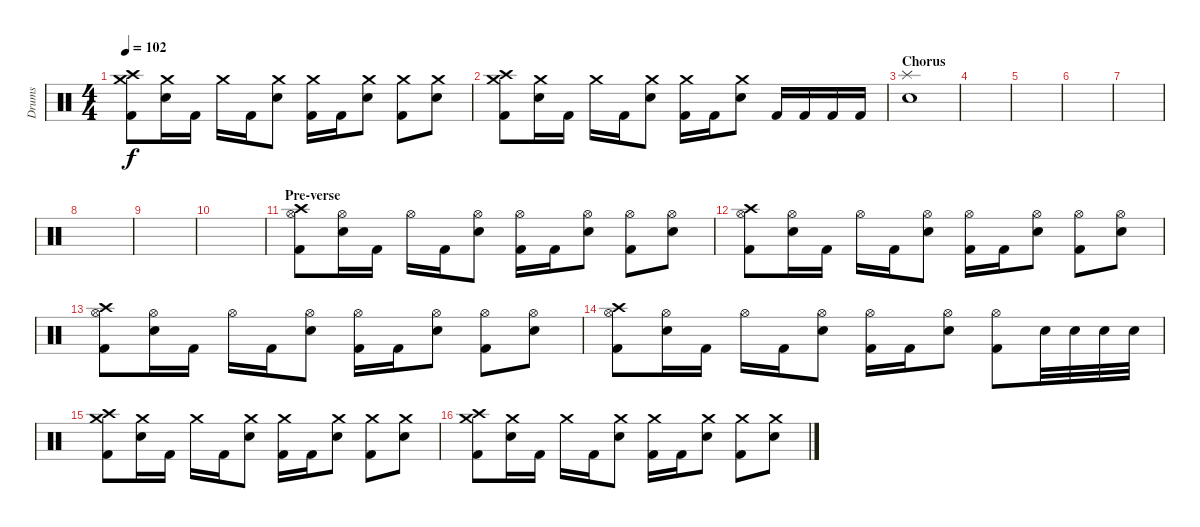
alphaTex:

\track ("Drums" "Drums") {instrument percussion}
\staff {score}
\articulation defaults
\ts (4 4)
\tempo 102
\clef neutral
\ks c
("Crash medium (hit)" "Kick (hit) 2" "Crash high (hit)").8{dy f} ("Crash medium (hit)" "Electric Snare (hit)").16 "Kick (hit) 2".16 "Crash medium (hit)".16 "Kick (hit) 2".16 ("Crash medium (hit)" "Electric Snare (hit)").8 ("Crash medium (hit)" "Kick (hit) 2").16 "Kick (hit) 2".16 ("Crash medium (hit)" "Electric Snare (hit)").8 ("Crash medium (hit)" "Kick (hit) 2").8 ("Crash medium (hit)" "Electric Snare (hit)").8 |
("Crash medium (hit)" "Kick (hit) 2" "Crash high (hit)").8 ("Crash medium (hit)" "Electric Snare (hit)").16 "Kick (hit) 2".16 "Crash medium (hit)".16 "Kick (hit) 2".16 ("Crash medium (hit)" "Electric Snare (hit)").8 ("Crash medium (hit)" "Kick (hit) 2").16 "Kick (hit) 2".16 ("Crash medium (hit)" "Electric Snare (hit)").8 "Kick (hit) 2".16 "Kick (hit) 2".16 "Kick (hit) 2".16 "Kick (hit) 2".16 |
\section ("" "Chorus")
("Splash (hit)" "Electric Snare (hit)").1 |
|
|
|
|
|
|
|
\section ("" "Pre-verse")
("Hi-Hat (open)" "Kick (hit) 2" "Crash high (hit)").8 ("Hi-Hat (open)" "Electric Snare (hit)").16 "Kick (hit) 2".16 "Hi-Hat (open)".16 "Kick (hit) 2".16 ("Hi-Hat (open)" "Electric Snare (hit)").8 ("Hi-Hat (open)" "Kick (hit) 2").16 "Kick (hit) 2".16 ("Hi-Hat (open)" "Electric Snare (hit)").8 ("Hi-Hat (open)" "Kick (hit) 2").8 ("Hi-Hat (open)" "Electric Snare (hit)").8 |
("Hi-Hat (open)" "Kick (hit) 2" "Crash high (hit)").8 ("Hi-Hat (open)" "Electric Snare (hit)").16 "Kick (hit) 2".16 "Hi-Hat (open)".16 "Kick (hit) 2".16 ("Hi-Hat (open)" "Electric Snare (hit)").8 ("Hi-Hat (open)" "Kick (hit) 2").16 "Kick (hit) 2".16 ("Hi-Hat (open)" "Electric Snare (hit)").8 ("Hi-Hat (open)" "Kick (hit) 2").8 ("Hi-Hat (open)" "Electric Snare (hit)").8 |
("Hi-Hat (open)" "Kick (hit) 2" "Crash high (hit)").8 ("Hi-Hat (open)" "Electric Snare (hit)").16 "Kick (hit) 2".16 "Hi-Hat (open)".16 "Kick (hit) 2".16 ("Hi-Hat (open)" "Electric Snare (hit)").8 ("Hi-Hat (open)" "Kick (hit) 2").16 "Kick (hit) 2".16 ("Hi-Hat (open)" "Electric Snare (hit)").8 ("Hi-Hat (open)" "Kick (hit) 2").8 ("Hi-Hat (open)" "Electric Snare (hit)").8 |
("Hi-Hat (open)" "Kick (hit) 2" "Crash high (hit)").8 ("Hi-Hat (open)" "Electric Snare (hit)").16 "Kick (hit) 2".16 "Hi-Hat (open)".16 "Kick (hit) 2".16 ("Hi-Hat (open)" "Electric Snare (hit)").8 ("Hi-Hat (open)" "Kick (hit) 2").16 "Kick (hit) 2".16 ("Hi-Hat (open)" "Electric Snare (hit)").8 ("Hi-Hat (open)" "Kick (hit) 2").8 "Electric Snare (hit)".32 "Electric Snare (hit)".32 "Electric Snare (hit)".32 "Electric Snare (hit)".32 |
("Crash medium (hit)" "Kick (hit) 2" "Crash high (hit)").8 ("Crash medium (hit)" "Electric Snare (hit)").16 "Kick (hit) 2".16 "Crash medium (hit)".16 "Kick (hit) 2".16 ("Crash medium (hit)" "Electric Snare (hit)").8 ("Crash medium (hit)" "Kick (hit) 2").16 "Kick (hit) 2".16 ("Crash medium (hit)" "Electric Snare (hit)").8 ("Crash medium (hit)" "Kick (hit) 2").8 ("Crash medium (hit)" "Electric Snare (hit)").8 |
("Crash medium (hit)" "Kick (hit) 2" "Crash high (hit)").8 ("Crash medium (hit)" "Electric Snare (hit)").16 "Kick (hit) 2".16 "Crash medium (hit)".16 "Kick (hit) 2".16 ("Crash medium (hit)" "Electric Snare (hit)").8 ("Crash medium (hit)" "Kick (hit) 2").16 "Kick (hit) 2".16 ("Crash medium (hit)" "Electric Snare (hit)").8 ("Crash medium (hit)" "Kick (hit) 2").8 ("Crash medium (hit)" "Electric Snare (hit)").8
